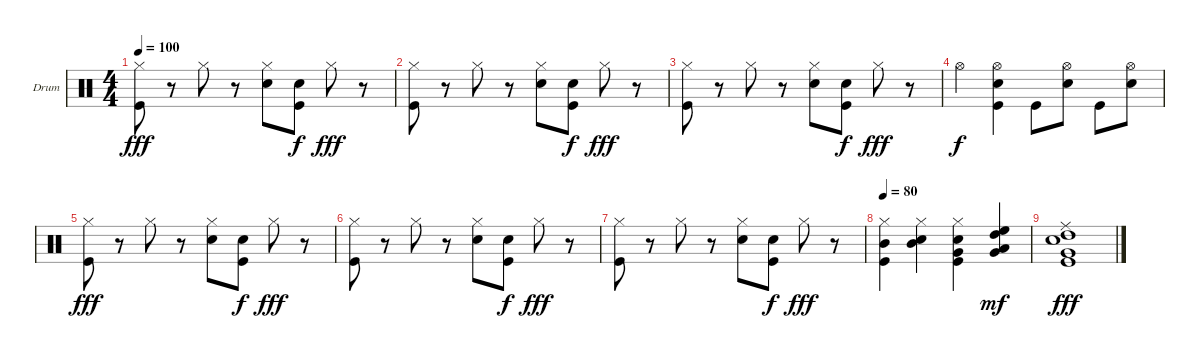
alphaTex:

\defaultSystemsLayout 4
\bracketExtendMode groupsimilarinstruments
\firstSystemTrackNameOrientation horizontal
\otherSystemsTrackNameOrientation horizontal
\track ("Drum" "Drum") {instrument percussion}
\staff {score}
\articulation defaults
\ts (4 4)
\tempo 100
\clef neutral
\scale
0.333333
\ks c
("Hi-Hat (closed)" "Kick (hit)").8{dy fff} r.8 "Hi-Hat (closed)".8 r.8 ("Hi-Hat (closed)" "Snare (hit) 2").8 ("Snare (hit) 2" "Kick (hit)").8{dy f} "Hi-Hat (closed)".8{dy fff} r.8 |
\scale
0.333333 ("Hi-Hat (closed)" "Kick (hit)").8 r.8 "Hi-Hat (closed)".8 r.8 ("Hi-Hat (closed)" "Snare (hit) 2").8 ("Snare (hit) 2" "Kick (hit)").8{dy f} "Hi-Hat (closed)".8{dy fff} r.8 |
\scale
0.333333 ("Hi-Hat (closed)" "Kick (hit)").8 r.8 "Hi-Hat (closed)".8 r.8 ("Hi-Hat (closed)" "Snare (hit) 2").8 ("Snare (hit) 2" "Kick (hit)").8{dy f} "Hi-Hat (closed)".8{dy fff} r.8 |
\scale
0.333333 "Hi-Hat (open)".4{dy f} ("Kick (hit)" "Snare (hit) 2" "Hi-Hat (open)").4 "Kick (hit)".8 ("Hi-Hat (open)" "Snare (hit) 2").8 "Kick (hit)".8 ("Snare (hit) 2" "Hi-Hat (open)").8 |
\scale
0.333333 ("Hi-Hat (closed)" "Kick (hit)").8{dy fff} r.8 "Hi-Hat (closed)".8 r.8 ("Hi-Hat (closed)" "Snare (hit) 2").8 ("Snare (hit) 2" "Kick (hit)").8{dy f} "Hi-Hat (closed)".8{dy fff} r.8 |
\scale
0.333333 ("Hi-Hat (closed)" "Kick (hit)").8 r.8 "Hi-Hat (closed)".8 r.8 ("Hi-Hat (closed)" "Snare (hit) 2").8 ("Snare (hit) 2" "Kick (hit)").8{dy f} "Hi-Hat (closed)".8{dy fff} r.8 |
("Hi-Hat (closed)" "Kick (hit)").8 r.8 "Hi-Hat (closed)".8 r.8 ("Hi-Hat (closed)" "Snare (hit) 2").8 ("Snare (hit) 2" "Kick (hit)").8{dy f} "Hi-Hat (closed)".8{dy fff} r.8 |
\tempo 80
("Hi-Hat (closed)" "Kick (hit)" "Mid Tom (hit)").4 ("Hi-Hat (closed)" "Snare (hit) 2" "Mid Tom (hit)").4 ("Hi-Hat (closed)" "Snare (hit) 2" "Very Low Tom (hit)" "Kick (hit)").4 ("High Tom (hit)" "High Floor Tom (hit)" "Very Low Tom (hit)" "Low Tom (hit)").4{dy mf} |
("Ride (middle)" "High Tom (hit)" "Snare (hit) 2" "Very Low Tom (hit)" "Kick (hit)").1{dy fff}
